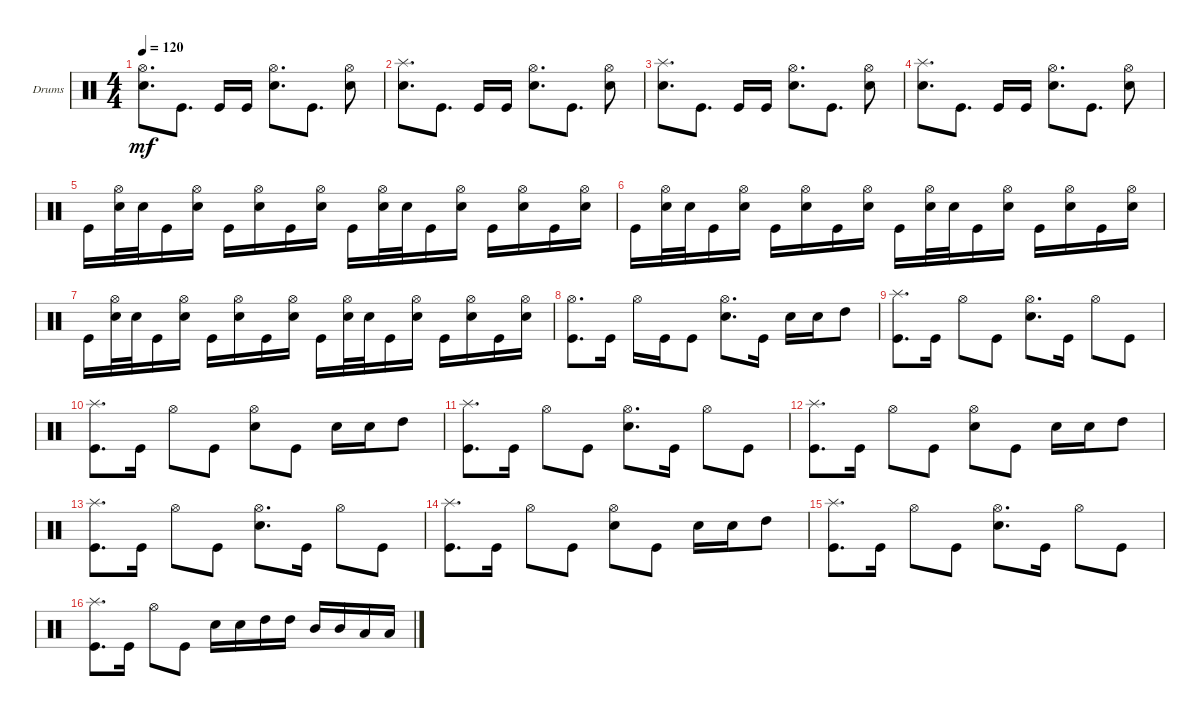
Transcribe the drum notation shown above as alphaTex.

\defaultSystemsLayout 4
\bracketExtendMode groupsimilarinstruments
\firstSystemTrackNameOrientation horizontal
\otherSystemsTrackNameOrientation horizontal
\track ("Kai" "Drums") {instrument percussion}
\staff {score}
\articulation defaults
\ts (4 4)
\tempo 120
\clef neutral
\ks c
("Hi-Hat (open)" "Snare (hit) 2").8{d dy mf} "Kick (hit)".8{d} "Kick (hit)".16 "Kick (hit)".16 ("Hi-Hat (open)" "Snare (hit) 2").8{d} "Kick (hit)".8{d} ("Snare (hit) 2" "Hi-Hat (open)").8 |
("Snare (hit) 2" "Splash (hit)").8{d} "Kick (hit)".8{d} "Kick (hit)".16 "Kick (hit)".16 ("Hi-Hat (open)" "Snare (hit) 2").8{d} "Kick (hit)".8{d} ("Snare (hit) 2" "Hi-Hat (open)").8 |
("Snare (hit) 2" "Splash (hit)").8{d} "Kick (hit)".8{d} "Kick (hit)".16 "Kick (hit)".16 ("Hi-Hat (open)" "Snare (hit) 2").8{d} "Kick (hit)".8{d} ("Snare (hit) 2" "Hi-Hat (open)").8 |
("Snare (hit) 2" "Splash (hit)").8{d} "Kick (hit)".8{d} "Kick (hit)".16 "Kick (hit)".16 ("Hi-Hat (open)" "Snare (hit) 2").8{d} "Kick (hit)".8{d} ("Snare (hit) 2" "Hi-Hat (open)").8 |
"Kick (hit)".16 ("Hi-Hat (open)" "Snare (hit) 2").32 "Snare (hit) 2".32 "Kick (hit)".16 ("Snare (hit) 2" "Hi-Hat (open)").16 "Kick (hit)".16 ("Snare (hit) 2" "Hi-Hat (open)").16 "Kick (hit)".16 ("Snare (hit) 2" "Hi-Hat (open)").16 "Kick (hit)".16 ("Hi-Hat (open)" "Snare (hit) 2").32 "Snare (hit) 2".32 "Kick (hit)".16 ("Snare (hit) 2" "Hi-Hat (open)").16 "Kick (hit)".16 ("Snare (hit) 2" "Hi-Hat (open)").16 "Kick (hit)".16 ("Snare (hit) 2" "Hi-Hat (open)").16 |
"Kick (hit)".16 ("Hi-Hat (open)" "Snare (hit) 2").32 "Snare (hit) 2".32 "Kick (hit)".16 ("Snare (hit) 2" "Hi-Hat (open)").16 "Kick (hit)".16 ("Snare (hit) 2" "Hi-Hat (open)").16 "Kick (hit)".16 ("Snare (hit) 2" "Hi-Hat (open)").16 "Kick (hit)".16 ("Hi-Hat (open)" "Snare (hit) 2").32 "Snare (hit) 2".32 "Kick (hit)".16 ("Snare (hit) 2" "Hi-Hat (open)").16 "Kick (hit)".16 ("Snare (hit) 2" "Hi-Hat (open)").16 "Kick (hit)".16 ("Snare (hit) 2" "Hi-Hat (open)").16 |
"Kick (hit)".16 ("Hi-Hat (open)" "Snare (hit) 2").32 "Snare (hit) 2".32 "Kick (hit)".16 ("Snare (hit) 2" "Hi-Hat (open)").16 "Kick (hit)".16 ("Snare (hit) 2" "Hi-Hat (open)").16 "Kick (hit)".16 ("Snare (hit) 2" "Hi-Hat (open)").16 "Kick (hit)".16 ("Hi-Hat (open)" "Snare (hit) 2").32 "Snare (hit) 2".32 "Kick (hit)".16 ("Snare (hit) 2" "Hi-Hat (open)").16 "Kick (hit)".16 ("Snare (hit) 2" "Hi-Hat (open)").16 "Kick (hit)".16 ("Snare (hit) 2" "Hi-Hat (open)").16 |
("Kick (hit)" "Hi-Hat (open)").8{d} "Kick (hit)".16 "Hi-Hat (open)".16 "Kick (hit)".16 "Kick (hit)".8 ("Snare (hit) 2" "Hi-Hat (open)").8{d} "Kick (hit)".16 "Snare (hit) 2".16 "Snare (hit) 2".16 "High Tom (hit)".8 |
("Kick (hit)" "Splash (hit)").8{d} "Kick (hit)".16 "Hi-Hat (open)".8 "Kick (hit)".8 ("Hi-Hat (open)" "Snare (hit) 2").8{d} "Kick (hit)".16 "Hi-Hat (open)".8 "Kick (hit)".8 |
("Kick (hit)" "Splash (hit)").8{d} "Kick (hit)".16 "Hi-Hat (open)".8 "Kick (hit)".8 ("Hi-Hat (open)" "Snare (hit) 2").8 "Kick (hit)".8 "Snare (hit) 2".16 "Snare (hit) 2".16 "High Tom (hit)".8 |
("Kick (hit)" "Splash (hit)").8{d} "Kick (hit)".16 "Hi-Hat (open)".8 "Kick (hit)".8 ("Hi-Hat (open)" "Snare (hit) 2").8{d} "Kick (hit)".16 "Hi-Hat (open)".8 "Kick (hit)".8 |
("Kick (hit)" "Splash (hit)").8{d} "Kick (hit)".16 "Hi-Hat (open)".8 "Kick (hit)".8 ("Hi-Hat (open)" "Snare (hit) 2").8 "Kick (hit)".8 "Snare (hit) 2".16 "Snare (hit) 2".16 "High Tom (hit)".8 |
("Kick (hit)" "Splash (hit)").8{d} "Kick (hit)".16 "Hi-Hat (open)".8 "Kick (hit)".8 ("Hi-Hat (open)" "Snare (hit) 2").8{d} "Kick (hit)".16 "Hi-Hat (open)".8 "Kick (hit)".8 |
("Kick (hit)" "Splash (hit)").8{d} "Kick (hit)".16 "Hi-Hat (open)".8 "Kick (hit)".8 ("Hi-Hat (open)" "Snare (hit) 2").8 "Kick (hit)".8 "Snare (hit) 2".16 "Snare (hit) 2".16 "High Tom (hit)".8 |
("Kick (hit)" "Splash (hit)").8{d} "Kick (hit)".16 "Hi-Hat (open)".8 "Kick (hit)".8 ("Hi-Hat (open)" "Snare (hit) 2").8{d} "Kick (hit)".16 "Hi-Hat (open)".8 "Kick (hit)".8 |
("Kick (hit)" "Splash (hit)").8{d} "Kick (hit)".16 "Hi-Hat (open)".8 "Kick (hit)".8 "Snare (hit) 2".16 "Snare (hit) 2".16 "High Tom (hit)".16 "High Tom (hit)".16 "Mid Tom (hit)".16 "Mid Tom (hit)".16 "Low Tom (hit)".16 "Low Tom (hit)".16
